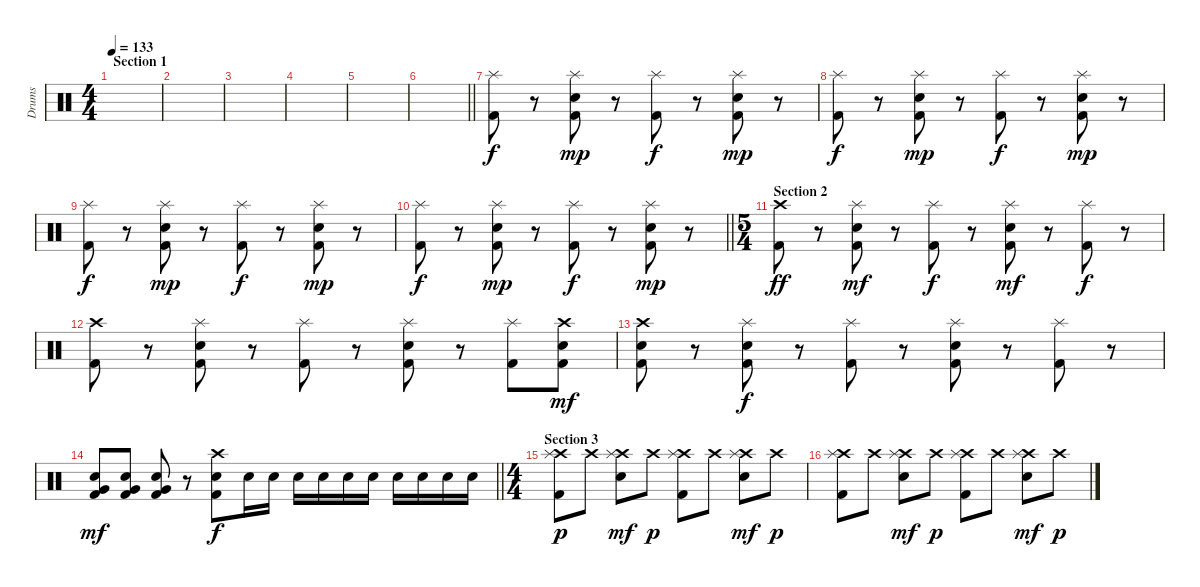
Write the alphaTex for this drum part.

\track ("Drums" "Drums") {instrument percussion}
\staff {score}
\articulation defaults
\ts (4 4)
\section ("" "Section 1")
\tempo 133
\clef neutral
\ks c
|
|
|
|
|
\barLineRight lightlight
|
("Splash (hit)" "Kick (hit) 2").8 r.8 ("Splash (hit)" "Electric Snare (hit)" "Kick (hit) 2").8{dy mp} r.8 ("Splash (hit)" "Kick (hit) 2").8{dy f} r.8 ("Splash (hit)" "Electric Snare (hit)" "Kick (hit) 2").8{dy mp} r.8 |
("Splash (hit)" "Kick (hit) 2").8{dy f} r.8 ("Splash (hit)" "Electric Snare (hit)" "Kick (hit) 2").8{dy mp} r.8 ("Splash (hit)" "Kick (hit) 2").8{dy f} r.8 ("Splash (hit)" "Electric Snare (hit)" "Kick (hit) 2").8{dy mp} r.8 |
("Splash (hit)" "Kick (hit) 2").8{dy f} r.8 ("Splash (hit)" "Electric Snare (hit)" "Kick (hit) 2").8{dy mp} r.8 ("Splash (hit)" "Kick (hit) 2").8{dy f} r.8 ("Splash (hit)" "Electric Snare (hit)" "Kick (hit) 2").8{dy mp} r.8 |
\barLineRight lightlight
("Splash (hit)" "Kick (hit) 2").8{dy f} r.8 ("Splash (hit)" "Electric Snare (hit)" "Kick (hit) 2").8{dy mp} r.8 ("Splash (hit)" "Kick (hit) 2").8{dy f} r.8 ("Splash (hit)" "Electric Snare (hit)" "Kick (hit) 2").8{dy mp} r.8 |
\ts (5 4)
\section ("" "Section 2")
("Crash high (hit)" "Kick (hit) 2").8{dy ff} r.8 ("Splash (hit)" "Electric Snare (hit)" "Kick (hit) 2").8{dy mf} r.8 ("Splash (hit)" "Kick (hit) 2").8{dy f} r.8 ("Splash (hit)" "Electric Snare (hit)" "Kick (hit) 2").8{dy mf} r.8 ("Splash (hit)" "Kick (hit) 2").8{dy f} r.8 |
("Crash high (hit)" "Kick (hit) 2").8 r.8 ("Splash (hit)" "Electric Snare (hit)" "Kick (hit) 2").8 r.8 ("Splash (hit)" "Kick (hit) 2").8 r.8 ("Splash (hit)" "Electric Snare (hit)" "Kick (hit) 2").8 r.8 ("Splash (hit)" "Kick (hit) 2").8 ("Crash high (hit)" "Electric Snare (hit)" "Kick (hit) 2").8{dy mf} |
("Crash high (hit)" "Electric Snare (hit)" "Kick (hit) 2").8 r.8 ("Splash (hit)" "Electric Snare (hit)" "Kick (hit) 2").8{dy f} r.8 ("Splash (hit)" "Kick (hit) 2").8 r.8 ("Splash (hit)" "Electric Snare (hit)" "Kick (hit) 2").8 r.8 ("Splash (hit)" "Kick (hit) 2").8 r.8 |
\barLineRight lightlight
("Very Low Tom (hit)" "Electric Snare (hit)" "Kick (hit) 2").8{dy mf} ("Very Low Tom (hit)" "Electric Snare (hit)" "Kick (hit) 2").8 ("Very Low Tom (hit)" "Electric Snare (hit)" "Kick (hit) 2").8 r.8 ("Crash high (hit)" "Electric Snare (hit)" "Kick (hit) 2").8{dy f} "Electric Snare (hit)".16 "Electric Snare (hit)".16 "Electric Snare (hit)".16 "Electric Snare (hit)".16 "Electric Snare (hit)".16 "Electric Snare (hit)".16 "Electric Snare (hit)".16 "Electric Snare (hit)".16 "Electric Snare (hit)".16 "Electric Snare (hit)".16 |
\ts (4 4)
\section ("" "Section 3")
("Crash high (hit)" "Splash (hit)" "Kick (hit) 2").8{dy p} "Crash high (hit)".8 ("Crash high (hit)" "Splash (hit)" "Electric Snare (hit)").8{dy mf} "Crash high (hit)".8{dy p} ("Crash high (hit)" "Splash (hit)" "Kick (hit) 2").8 "Crash high (hit)".8 ("Crash high (hit)" "Splash (hit)" "Electric Snare (hit)").8{dy mf} "Crash high (hit)".8{dy p} |
("Crash high (hit)" "Splash (hit)" "Kick (hit) 2").8 "Crash high (hit)".8 ("Crash high (hit)" "Splash (hit)" "Electric Snare (hit)").8{dy mf} "Crash high (hit)".8{dy p} ("Crash high (hit)" "Splash (hit)" "Kick (hit) 2").8 "Crash high (hit)".8 ("Crash high (hit)" "Splash (hit)" "Electric Snare (hit)").8{dy mf} "Crash high (hit)".8{dy p}
